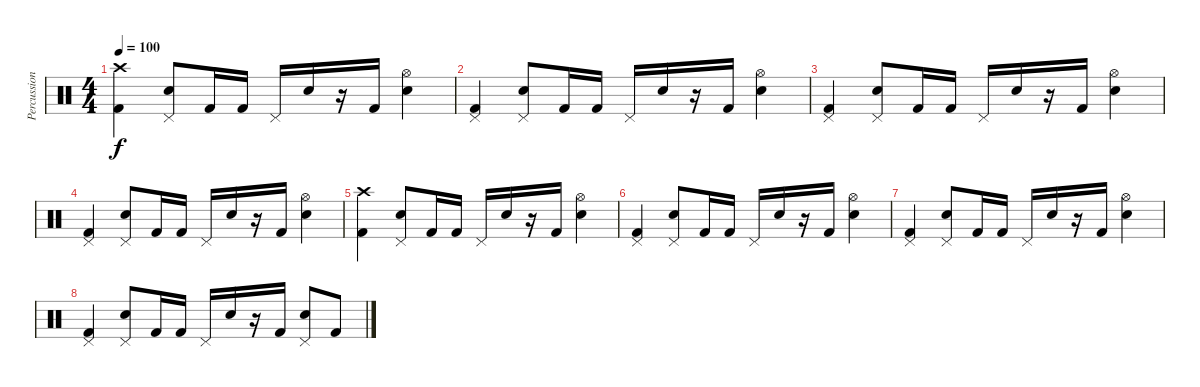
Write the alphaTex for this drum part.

\track ("Percussion" "Percussion") {instrument percussion}
\staff {score}
\articulation defaults
\ts (4 4)
\tempo 100
\clef neutral
\ks c
("Crash high (hit)" "Kick (hit) 2").4{dy f} ("Pedal Hi-Hat (hit)" "Electric Snare (hit)").8 "Kick (hit) 2".16 "Kick (hit) 2".16 "Pedal Hi-Hat (hit)".16 "Electric Snare (hit)".16 r.16 "Kick (hit) 2".16 ("Hi-Hat (open)" "Electric Snare (hit)").4 |
("Pedal Hi-Hat (hit)" "Kick (hit) 2").4 ("Pedal Hi-Hat (hit)" "Electric Snare (hit)").8 "Kick (hit) 2".16 "Kick (hit) 2".16 "Pedal Hi-Hat (hit)".16 "Electric Snare (hit)".16 r.16 "Kick (hit) 2".16 ("Hi-Hat (open)" "Electric Snare (hit)").4 |
("Pedal Hi-Hat (hit)" "Kick (hit) 2").4 ("Pedal Hi-Hat (hit)" "Electric Snare (hit)").8 "Kick (hit) 2".16 "Kick (hit) 2".16 "Pedal Hi-Hat (hit)".16 "Electric Snare (hit)".16 r.16 "Kick (hit) 2".16 ("Hi-Hat (open)" "Electric Snare (hit)").4 |
("Pedal Hi-Hat (hit)" "Kick (hit) 2").4 ("Pedal Hi-Hat (hit)" "Electric Snare (hit)").8 "Kick (hit) 2".16 "Kick (hit) 2".16 "Pedal Hi-Hat (hit)".16 "Electric Snare (hit)".16 r.16 "Kick (hit) 2".16 ("Hi-Hat (open)" "Electric Snare (hit)").4 |
("Crash high (hit)" "Kick (hit) 2").4 ("Pedal Hi-Hat (hit)" "Electric Snare (hit)").8 "Kick (hit) 2".16 "Kick (hit) 2".16 "Pedal Hi-Hat (hit)".16 "Electric Snare (hit)".16 r.16 "Kick (hit) 2".16 ("Hi-Hat (open)" "Electric Snare (hit)").4 |
("Pedal Hi-Hat (hit)" "Kick (hit) 2").4 ("Pedal Hi-Hat (hit)" "Electric Snare (hit)").8 "Kick (hit) 2".16 "Kick (hit) 2".16 "Pedal Hi-Hat (hit)".16 "Electric Snare (hit)".16 r.16 "Kick (hit) 2".16 ("Hi-Hat (open)" "Electric Snare (hit)").4 |
("Pedal Hi-Hat (hit)" "Kick (hit) 2").4 ("Pedal Hi-Hat (hit)" "Electric Snare (hit)").8 "Kick (hit) 2".16 "Kick (hit) 2".16 "Pedal Hi-Hat (hit)".16 "Electric Snare (hit)".16 r.16 "Kick (hit) 2".16 ("Hi-Hat (open)" "Electric Snare (hit)").4 |
("Pedal Hi-Hat (hit)" "Kick (hit) 2").4 ("Pedal Hi-Hat (hit)" "Electric Snare (hit)").8 "Kick (hit) 2".16 "Kick (hit) 2".16 "Pedal Hi-Hat (hit)".16 "Electric Snare (hit)".16 r.16 "Kick (hit) 2".16 ("Pedal Hi-Hat (hit)" "Electric Snare (hit)").8 "Kick (hit) 2".8
